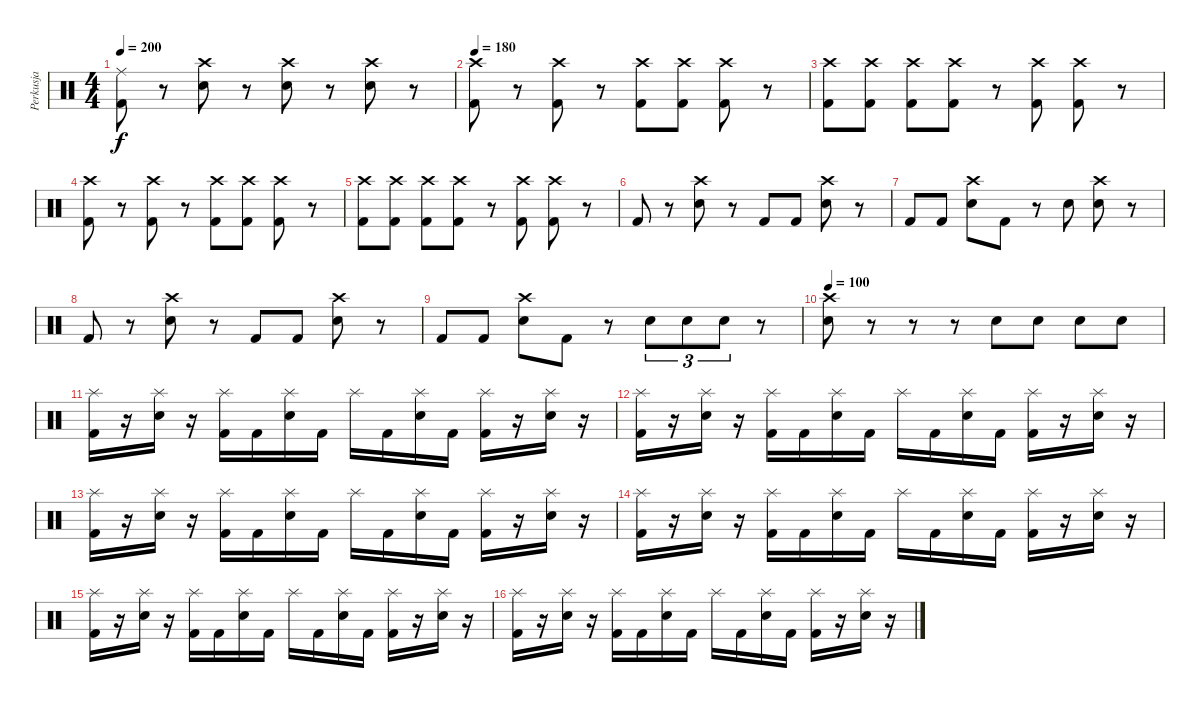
\track ("Perkusja" "Perkusja") {instrument percussion}
\staff {score}
\articulation defaults
\ts (4 4)
\tempo 200
\clef neutral
\ks c
("Ride (middle)" "Kick (hit) 2").8{dy f} r.8 ("Crash high (hit)" "Snare (hit) 2").8 r.8 ("Crash high (hit)" "Snare (hit) 2").8 r.8 ("Crash high (hit)" "Snare (hit) 2").8 r.8 |
\tempo 180
("Crash high (hit)" "Kick (hit) 2").8 r.8 ("Crash high (hit)" "Kick (hit) 2").8 r.8 ("Crash high (hit)" "Kick (hit) 2").8 ("Crash high (hit)" "Kick (hit) 2").8 ("Crash high (hit)" "Kick (hit) 2").8 r.8 |
("Crash high (hit)" "Kick (hit) 2").8 ("Crash high (hit)" "Kick (hit) 2").8 ("Crash high (hit)" "Kick (hit) 2").8 ("Crash high (hit)" "Kick (hit) 2").8 r.8 ("Crash high (hit)" "Kick (hit) 2").8 ("Crash high (hit)" "Kick (hit) 2").8 r.8 |
("Crash high (hit)" "Kick (hit) 2").8 r.8 ("Crash high (hit)" "Kick (hit) 2").8 r.8 ("Crash high (hit)" "Kick (hit) 2").8 ("Crash high (hit)" "Kick (hit) 2").8 ("Crash high (hit)" "Kick (hit) 2").8 r.8 |
("Crash high (hit)" "Kick (hit) 2").8 ("Crash high (hit)" "Kick (hit) 2").8 ("Crash high (hit)" "Kick (hit) 2").8 ("Crash high (hit)" "Kick (hit) 2").8 r.8 ("Crash high (hit)" "Kick (hit) 2").8 ("Crash high (hit)" "Kick (hit) 2").8 r.8 |
"Kick (hit) 2".8 r.8 ("Crash high (hit)" "Snare (hit) 2").8 r.8 "Kick (hit) 2".8 "Kick (hit) 2".8 ("Crash high (hit)" "Snare (hit) 2").8 r.8 |
"Kick (hit) 2".8 "Kick (hit) 2".8 ("Crash high (hit)" "Snare (hit) 2").8 "Kick (hit) 2".8 r.8 "Snare (hit) 2".8 ("Crash high (hit)" "Snare (hit) 2").8 r.8 |
"Kick (hit) 2".8 r.8 ("Crash high (hit)" "Snare (hit) 2").8 r.8 "Kick (hit) 2".8 "Kick (hit) 2".8 ("Crash high (hit)" "Snare (hit) 2").8 r.8 |
"Kick (hit) 2".8 "Kick (hit) 2".8 ("Crash high (hit)" "Snare (hit) 2").8 "Kick (hit) 2".8 r.8 "Snare (hit) 2".8{tu (3 2)} "Snare (hit) 2".8{tu (3 2)} "Snare (hit) 2".8{tu (3 2)} r.8 |
\tempo 100
("Crash high (hit)" "Snare (hit) 2").8 r.8 r.8 r.8 "Snare (hit) 2".8 "Snare (hit) 2".8 "Snare (hit) 2".8 "Snare (hit) 2".8 |
("Splash (hit)" "Kick (hit) 2").16 r.16 ("Splash (hit)" "Snare (hit) 2").16 r.16 ("Splash (hit)" "Kick (hit) 2").16 "Kick (hit) 2".16 ("Splash (hit)" "Snare (hit) 2").16 "Kick (hit) 2".16 "Splash (hit)".16 "Kick (hit) 2".16 ("Splash (hit)" "Snare (hit) 2").16 "Kick (hit) 2".16 ("Splash (hit)" "Kick (hit) 2").16 r.16 ("Splash (hit)" "Snare (hit) 2").16 r.16 |
("Splash (hit)" "Kick (hit) 2").16 r.16 ("Splash (hit)" "Snare (hit) 2").16 r.16 ("Splash (hit)" "Kick (hit) 2").16 "Kick (hit) 2".16 ("Splash (hit)" "Snare (hit) 2").16 "Kick (hit) 2".16 "Splash (hit)".16 "Kick (hit) 2".16 ("Splash (hit)" "Snare (hit) 2").16 "Kick (hit) 2".16 ("Splash (hit)" "Kick (hit) 2").16 r.16 ("Splash (hit)" "Snare (hit) 2").16 r.16 |
("Splash (hit)" "Kick (hit) 2").16 r.16 ("Splash (hit)" "Snare (hit) 2").16 r.16 ("Splash (hit)" "Kick (hit) 2").16 "Kick (hit) 2".16 ("Splash (hit)" "Snare (hit) 2").16 "Kick (hit) 2".16 "Splash (hit)".16 "Kick (hit) 2".16 ("Splash (hit)" "Snare (hit) 2").16 "Kick (hit) 2".16 ("Splash (hit)" "Kick (hit) 2").16 r.16 ("Splash (hit)" "Snare (hit) 2").16 r.16 |
("Splash (hit)" "Kick (hit) 2").16 r.16 ("Splash (hit)" "Snare (hit) 2").16 r.16 ("Splash (hit)" "Kick (hit) 2").16 "Kick (hit) 2".16 ("Splash (hit)" "Snare (hit) 2").16 "Kick (hit) 2".16 "Splash (hit)".16 "Kick (hit) 2".16 ("Splash (hit)" "Snare (hit) 2").16 "Kick (hit) 2".16 ("Splash (hit)" "Kick (hit) 2").16 r.16 ("Splash (hit)" "Snare (hit) 2").16 r.16 |
("Splash (hit)" "Kick (hit) 2").16 r.16 ("Splash (hit)" "Snare (hit) 2").16 r.16 ("Splash (hit)" "Kick (hit) 2").16 "Kick (hit) 2".16 ("Splash (hit)" "Snare (hit) 2").16 "Kick (hit) 2".16 "Splash (hit)".16 "Kick (hit) 2".16 ("Splash (hit)" "Snare (hit) 2").16 "Kick (hit) 2".16 ("Splash (hit)" "Kick (hit) 2").16 r.16 ("Splash (hit)" "Snare (hit) 2").16 r.16 |
("Splash (hit)" "Kick (hit) 2").16 r.16 ("Splash (hit)" "Snare (hit) 2").16 r.16 ("Splash (hit)" "Kick (hit) 2").16 "Kick (hit) 2".16 ("Splash (hit)" "Snare (hit) 2").16 "Kick (hit) 2".16 "Splash (hit)".16 "Kick (hit) 2".16 ("Splash (hit)" "Snare (hit) 2").16 "Kick (hit) 2".16 ("Splash (hit)" "Kick (hit) 2").16 r.16 ("Splash (hit)" "Snare (hit) 2").16 r.16
